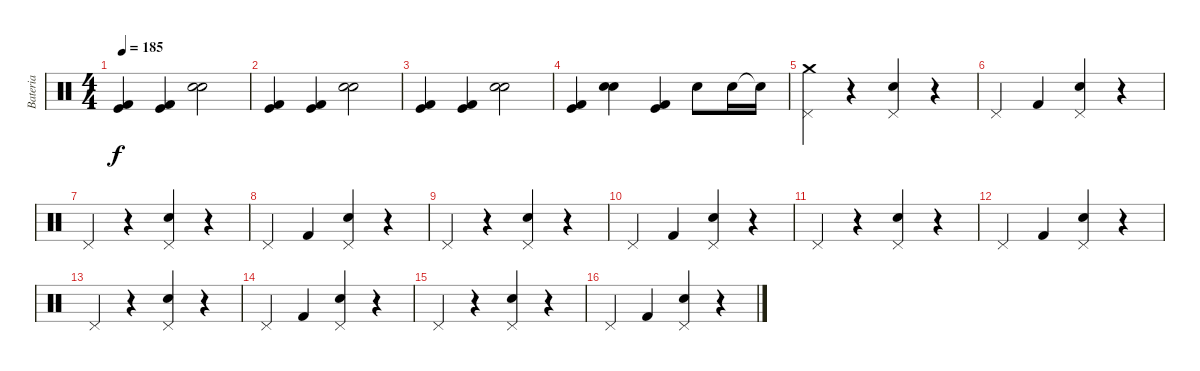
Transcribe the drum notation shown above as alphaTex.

\track ("Bateria" "Bateria") {instrument percussion}
\staff {score}
\articulation defaults
\ts (4 4)
\tempo 185
\clef neutral
\ks c
("Kick (hit) 2" "Kick (hit)").4{dy f} ("Kick (hit) 2" "Kick (hit)").4 ("Electric Snare (hit)" "Snare (hit) 2").2 |
("Kick (hit) 2" "Kick (hit)").4 ("Kick (hit) 2" "Kick (hit)").4 ("Electric Snare (hit)" "Snare (hit) 2").2 |
("Kick (hit) 2" "Kick (hit)").4 ("Kick (hit) 2" "Kick (hit)").4 ("Electric Snare (hit)" "Snare (hit) 2").2 |
("Kick (hit)" "Kick (hit) 2").4 ("Electric Snare (hit)" "Snare (hit) 2").4 ("Kick (hit)" "Kick (hit) 2").4 "Electric Snare (hit)".8 "Electric Snare (hit)".16 "Electric Snare (hit)"{t}.16 |
("Pedal Hi-Hat (hit)" "Crash medium (hit)").4 r.4 ("Pedal Hi-Hat (hit)" "Electric Snare (hit)").4 r.4 |
"Pedal Hi-Hat (hit)".4 "Kick (hit) 2".4 ("Pedal Hi-Hat (hit)" "Electric Snare (hit)").4 r.4 |
"Pedal Hi-Hat (hit)".4 r.4 ("Pedal Hi-Hat (hit)" "Electric Snare (hit)").4 r.4 |
"Pedal Hi-Hat (hit)".4 "Kick (hit) 2".4 ("Pedal Hi-Hat (hit)" "Electric Snare (hit)").4 r.4 |
"Pedal Hi-Hat (hit)".4 r.4 ("Pedal Hi-Hat (hit)" "Electric Snare (hit)").4 r.4 |
"Pedal Hi-Hat (hit)".4 "Kick (hit) 2".4 ("Pedal Hi-Hat (hit)" "Electric Snare (hit)").4 r.4 |
"Pedal Hi-Hat (hit)".4 r.4 ("Pedal Hi-Hat (hit)" "Electric Snare (hit)").4 r.4 |
"Pedal Hi-Hat (hit)".4 "Kick (hit) 2".4 ("Pedal Hi-Hat (hit)" "Electric Snare (hit)").4 r.4 |
"Pedal Hi-Hat (hit)".4 r.4 ("Pedal Hi-Hat (hit)" "Electric Snare (hit)").4 r.4 |
"Pedal Hi-Hat (hit)".4 "Kick (hit) 2".4 ("Pedal Hi-Hat (hit)" "Electric Snare (hit)").4 r.4 |
"Pedal Hi-Hat (hit)".4 r.4 ("Pedal Hi-Hat (hit)" "Electric Snare (hit)").4 r.4 |
"Pedal Hi-Hat (hit)".4 "Kick (hit) 2".4 ("Pedal Hi-Hat (hit)" "Electric Snare (hit)").4 r.4
